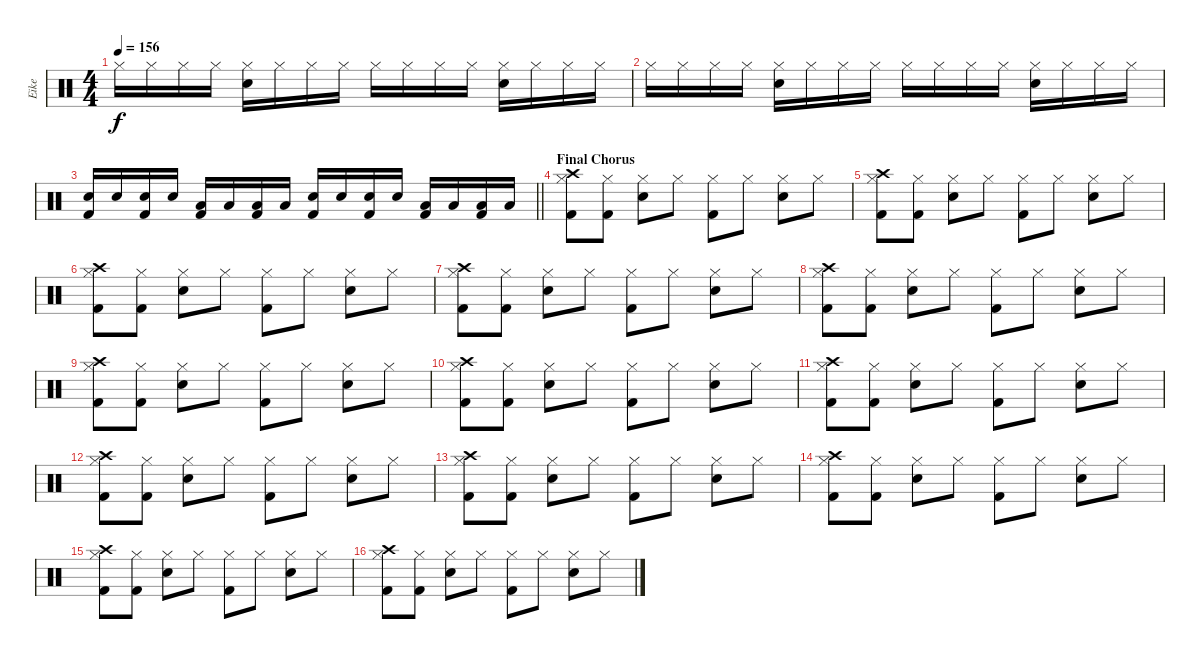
\track ("Eike" "Eike") {instrument percussion}
\staff {score}
\articulation defaults
\ts (4 4)
\tempo 156
\clef neutral
\ks c "Hi-Hat (closed)".16{dy f} "Hi-Hat (closed)".16 "Hi-Hat (closed)".16 "Hi-Hat (closed)".16
("Hi-Hat (closed)" "Snare (hit) 2").16 "Hi-Hat (closed)".16 "Hi-Hat (closed)".16 "Hi-Hat (closed)".16 "Hi-Hat (closed)".16 "Hi-Hat (closed)".16 "Hi-Hat (closed)".16 "Hi-Hat (closed)".16 ("Hi-Hat (closed)" "Snare (hit) 2").16 "Hi-Hat (closed)".16 "Hi-Hat (closed)".16 "Hi-Hat (closed)".16 |
"Hi-Hat (closed)".16 "Hi-Hat (closed)".16 "Hi-Hat (closed)".16 "Hi-Hat (closed)".16 ("Hi-Hat (closed)" "Snare (hit) 2").16 "Hi-Hat (closed)".16 "Hi-Hat (closed)".16 "Hi-Hat (closed)".16 "Hi-Hat (closed)".16 "Hi-Hat (closed)".16 "Hi-Hat (closed)".16 "Hi-Hat (closed)".16 ("Hi-Hat (closed)" "Snare (hit) 2").16 "Hi-Hat (closed)".16 "Hi-Hat (closed)".16 "Hi-Hat (closed)".16 |
\barLineRight lightlight
("Snare (hit) 2" "Kick (hit) 2").16 "Snare (hit) 2".16 ("Snare (hit) 2" "Kick (hit) 2").16 "Snare (hit) 2".16 ("Low Tom (hit)" "Kick (hit) 2").16 "Low Tom (hit)".16 ("Low Tom (hit)" "Kick (hit) 2").16 "Low Tom (hit)".16 ("Snare (hit) 2" "Kick (hit) 2").16 "Snare (hit) 2".16 ("Snare (hit) 2" "Kick (hit) 2").16 "Snare (hit) 2".16 ("Low Tom (hit)" "Kick (hit) 2").16 "Low Tom (hit)".16 ("Low Tom (hit)" "Kick (hit) 2").16 "Low Tom (hit)".16 |
\section ("" "Final Chorus")
("Hi-Hat (closed)" "Kick (hit) 2" "Crash high (hit)").8 ("Hi-Hat (closed)" "Kick (hit) 2").8 ("Hi-Hat (closed)" "Snare (hit) 2").8 "Hi-Hat (closed)".8 ("Hi-Hat (closed)" "Kick (hit) 2").8 "Hi-Hat (closed)".8 ("Hi-Hat (closed)" "Snare (hit) 2").8 "Hi-Hat (closed)".8 |
("Hi-Hat (closed)" "Kick (hit) 2" "Crash high (hit)").8 ("Hi-Hat (closed)" "Kick (hit) 2").8 ("Hi-Hat (closed)" "Snare (hit) 2").8 "Hi-Hat (closed)".8 ("Hi-Hat (closed)" "Kick (hit) 2").8 "Hi-Hat (closed)".8 ("Hi-Hat (closed)" "Snare (hit) 2").8 "Hi-Hat (closed)".8 |
("Hi-Hat (closed)" "Kick (hit) 2" "Crash high (hit)").8 ("Hi-Hat (closed)" "Kick (hit) 2").8 ("Hi-Hat (closed)" "Snare (hit) 2").8 "Hi-Hat (closed)".8 ("Hi-Hat (closed)" "Kick (hit) 2").8 "Hi-Hat (closed)".8 ("Hi-Hat (closed)" "Snare (hit) 2").8 "Hi-Hat (closed)".8 |
("Hi-Hat (closed)" "Kick (hit) 2" "Crash high (hit)").8 ("Hi-Hat (closed)" "Kick (hit) 2").8 ("Hi-Hat (closed)" "Snare (hit) 2").8 "Hi-Hat (closed)".8 ("Hi-Hat (closed)" "Kick (hit) 2").8 "Hi-Hat (closed)".8 ("Hi-Hat (closed)" "Snare (hit) 2").8 "Hi-Hat (closed)".8 |
("Hi-Hat (closed)" "Kick (hit) 2" "Crash high (hit)").8 ("Hi-Hat (closed)" "Kick (hit) 2").8 ("Hi-Hat (closed)" "Snare (hit) 2").8 "Hi-Hat (closed)".8 ("Hi-Hat (closed)" "Kick (hit) 2").8 "Hi-Hat (closed)".8 ("Hi-Hat (closed)" "Snare (hit) 2").8 "Hi-Hat (closed)".8 |
("Hi-Hat (closed)" "Kick (hit) 2" "Crash high (hit)").8 ("Hi-Hat (closed)" "Kick (hit) 2").8 ("Hi-Hat (closed)" "Snare (hit) 2").8 "Hi-Hat (closed)".8 ("Hi-Hat (closed)" "Kick (hit) 2").8 "Hi-Hat (closed)".8 ("Hi-Hat (closed)" "Snare (hit) 2").8 "Hi-Hat (closed)".8 |
("Hi-Hat (closed)" "Kick (hit) 2" "Crash high (hit)").8 ("Hi-Hat (closed)" "Kick (hit) 2").8 ("Hi-Hat (closed)" "Snare (hit) 2").8 "Hi-Hat (closed)".8 ("Hi-Hat (closed)" "Kick (hit) 2").8 "Hi-Hat (closed)".8 ("Hi-Hat (closed)" "Snare (hit) 2").8 "Hi-Hat (closed)".8 |
("Hi-Hat (closed)" "Kick (hit) 2" "Crash high (hit)").8 ("Hi-Hat (closed)" "Kick (hit) 2").8 ("Hi-Hat (closed)" "Snare (hit) 2").8 "Hi-Hat (closed)".8 ("Hi-Hat (closed)" "Kick (hit) 2").8 "Hi-Hat (closed)".8 ("Hi-Hat (closed)" "Snare (hit) 2").8 "Hi-Hat (closed)".8 |
("Hi-Hat (closed)" "Kick (hit) 2" "Crash high (hit)").8 ("Hi-Hat (closed)" "Kick (hit) 2").8 ("Hi-Hat (closed)" "Snare (hit) 2").8 "Hi-Hat (closed)".8 ("Hi-Hat (closed)" "Kick (hit) 2").8 "Hi-Hat (closed)".8 ("Hi-Hat (closed)" "Snare (hit) 2").8 "Hi-Hat (closed)".8 |
("Hi-Hat (closed)" "Kick (hit) 2" "Crash high (hit)").8 ("Hi-Hat (closed)" "Kick (hit) 2").8 ("Hi-Hat (closed)" "Snare (hit) 2").8 "Hi-Hat (closed)".8 ("Hi-Hat (closed)" "Kick (hit) 2").8 "Hi-Hat (closed)".8 ("Hi-Hat (closed)" "Snare (hit) 2").8 "Hi-Hat (closed)".8 |
("Hi-Hat (closed)" "Kick (hit) 2" "Crash high (hit)").8 ("Hi-Hat (closed)" "Kick (hit) 2").8 ("Hi-Hat (closed)" "Snare (hit) 2").8 "Hi-Hat (closed)".8 ("Hi-Hat (closed)" "Kick (hit) 2").8 "Hi-Hat (closed)".8 ("Hi-Hat (closed)" "Snare (hit) 2").8 "Hi-Hat (closed)".8 |
("Hi-Hat (closed)" "Kick (hit) 2" "Crash high (hit)").8 ("Hi-Hat (closed)" "Kick (hit) 2").8 ("Hi-Hat (closed)" "Snare (hit) 2").8 "Hi-Hat (closed)".8 ("Hi-Hat (closed)" "Kick (hit) 2").8 "Hi-Hat (closed)".8 ("Hi-Hat (closed)" "Snare (hit) 2").8 "Hi-Hat (closed)".8 |
("Hi-Hat (closed)" "Kick (hit) 2" "Crash high (hit)").8 ("Hi-Hat (closed)" "Kick (hit) 2").8 ("Hi-Hat (closed)" "Snare (hit) 2").8 "Hi-Hat (closed)".8 ("Hi-Hat (closed)" "Kick (hit) 2").8 "Hi-Hat (closed)".8 ("Hi-Hat (closed)" "Snare (hit) 2").8 "Hi-Hat (closed)".8
